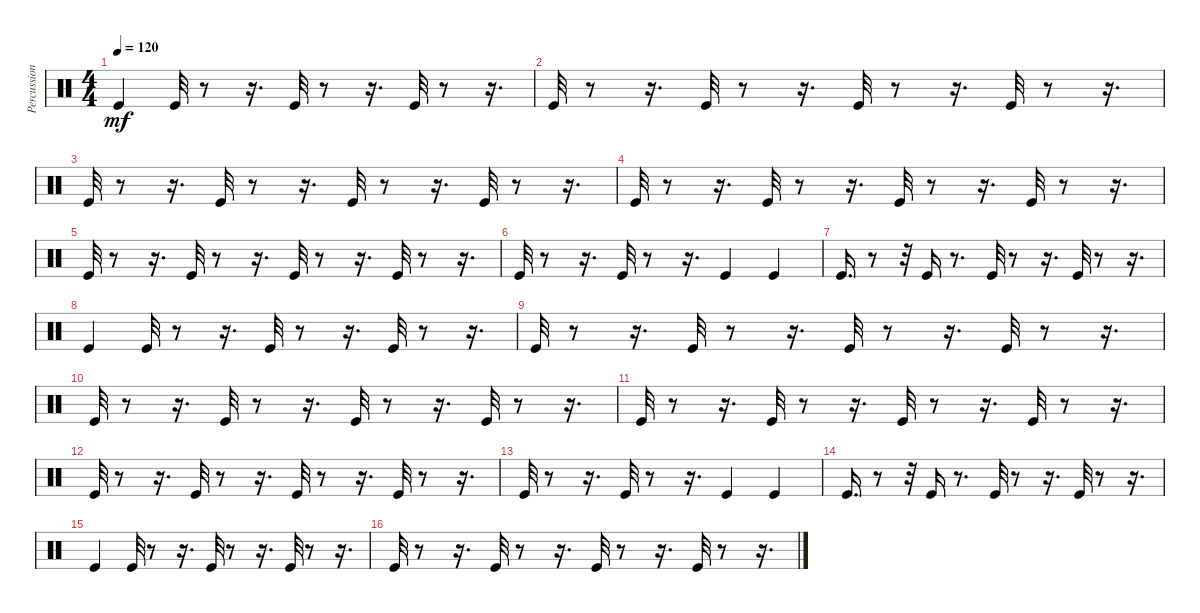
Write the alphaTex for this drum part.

\track ("Percussion" "Percussion") {instrument percussion}
\staff {score}
\articulation defaults
\ts (4 4)
\tempo 120
\clef neutral
\ks c "Kick (hit)".4{dy mf} "Kick (hit)".32
r.8 r.16{d} "Kick (hit)".32 r.8 r.16{d} "Kick (hit)".32 r.8 r.16{d} |
"Kick (hit)".32 r.8 r.16{d} "Kick (hit)".32 r.8 r.16{d} "Kick (hit)".32 r.8 r.16{d} "Kick (hit)".32 r.8 r.16{d} |
"Kick (hit)".32 r.8 r.16{d} "Kick (hit)".32 r.8 r.16{d} "Kick (hit)".32 r.8 r.16{d} "Kick (hit)".32 r.8 r.16{d} |
"Kick (hit)".32 r.8 r.16{d} "Kick (hit)".32 r.8 r.16{d} "Kick (hit)".32 r.8 r.16{d} "Kick (hit)".32 r.8 r.16{d} |
"Kick (hit)".32 r.8 r.16{d} "Kick (hit)".32 r.8 r.16{d} "Kick (hit)".32 r.8 r.16{d} "Kick (hit)".32 r.8 r.16{d} |
"Kick (hit)".32 r.8 r.16{d} "Kick (hit)".32 r.8 r.16{d} "Kick (hit)".4 "Kick (hit)".4 |
"Kick (hit)".16{d} r.8 r.32 "Kick (hit)".16 r.8{d} "Kick (hit)".32 r.8 r.16{d} "Kick (hit)".32 r.8 r.16{d} |
"Kick (hit)".4 "Kick (hit)".32 r.8 r.16{d} "Kick (hit)".32 r.8 r.16{d} "Kick (hit)".32 r.8 r.16{d} |
"Kick (hit)".32 r.8 r.16{d} "Kick (hit)".32 r.8 r.16{d} "Kick (hit)".32 r.8 r.16{d} "Kick (hit)".32 r.8 r.16{d} |
"Kick (hit)".32 r.8 r.16{d} "Kick (hit)".32 r.8 r.16{d} "Kick (hit)".32 r.8 r.16{d} "Kick (hit)".32 r.8 r.16{d} |
"Kick (hit)".32 r.8 r.16{d} "Kick (hit)".32 r.8 r.16{d} "Kick (hit)".32 r.8 r.16{d} "Kick (hit)".32 r.8 r.16{d} |
"Kick (hit)".32 r.8 r.16{d} "Kick (hit)".32 r.8 r.16{d} "Kick (hit)".32 r.8 r.16{d} "Kick (hit)".32 r.8 r.16{d} |
"Kick (hit)".32 r.8 r.16{d} "Kick (hit)".32 r.8 r.16{d} "Kick (hit)".4 "Kick (hit)".4 |
"Kick (hit)".16{d} r.8 r.32 "Kick (hit)".16 r.8{d} "Kick (hit)".32 r.8 r.16{d} "Kick (hit)".32 r.8 r.16{d} |
"Kick (hit)".4 "Kick (hit)".32 r.8 r.16{d} "Kick (hit)".32 r.8 r.16{d} "Kick (hit)".32 r.8 r.16{d} |
"Kick (hit)".32 r.8 r.16{d} "Kick (hit)".32 r.8 r.16{d} "Kick (hit)".32 r.8 r.16{d} "Kick (hit)".32 r.8 r.16{d}
